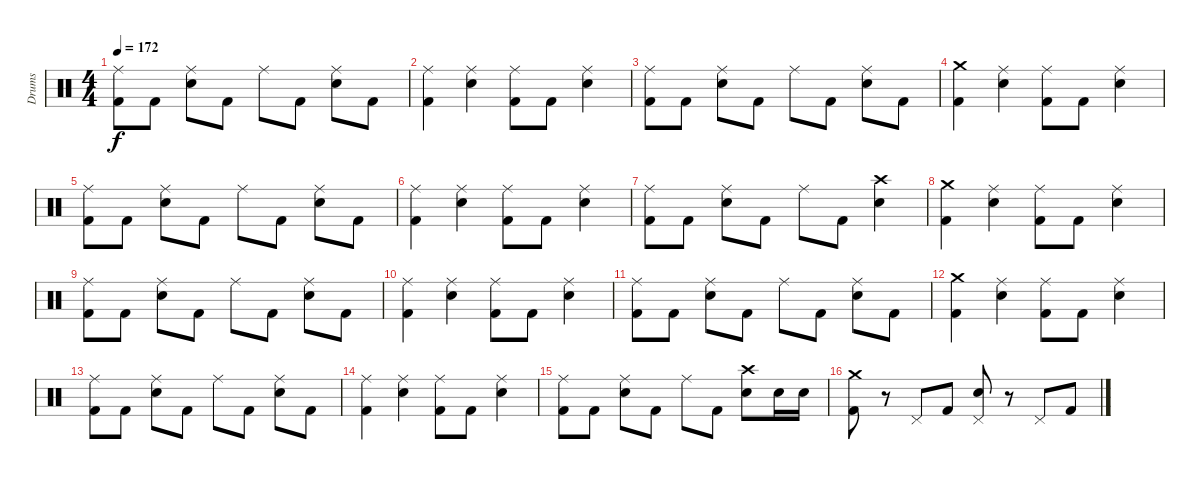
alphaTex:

\track ("Drums" "Drums") {instrument percussion}
\staff {score}
\articulation defaults
\ts (4 4)
\tempo 172
\clef neutral
\ks c
("Ride (middle)" "Kick (hit) 2").8{dy f} "Kick (hit) 2".8 ("Ride (middle)" "Electric Snare (hit)").8 "Kick (hit) 2".8 "Ride (middle)".8 "Kick (hit) 2".8 ("Ride (middle)" "Electric Snare (hit)").8 "Kick (hit) 2".8 |
("Ride (middle)" "Kick (hit) 2").4 ("Ride (middle)" "Electric Snare (hit)").4 ("Ride (middle)" "Kick (hit) 2").8 "Kick (hit) 2".8 ("Ride (middle)" "Electric Snare (hit)").4 |
("Ride (middle)" "Kick (hit) 2").8 "Kick (hit) 2".8 ("Ride (middle)" "Electric Snare (hit)").8 "Kick (hit) 2".8 "Ride (middle)".8 "Kick (hit) 2".8 ("Ride (middle)" "Electric Snare (hit)").8 "Kick (hit) 2".8 |
("Crash medium (hit)" "Kick (hit) 2").4 ("Ride (middle)" "Electric Snare (hit)").4 ("Ride (middle)" "Kick (hit) 2").8 "Kick (hit) 2".8 ("Ride (middle)" "Electric Snare (hit)").4 |
("Ride (middle)" "Kick (hit) 2").8 "Kick (hit) 2".8 ("Ride (middle)" "Electric Snare (hit)").8 "Kick (hit) 2".8 "Ride (middle)".8 "Kick (hit) 2".8 ("Ride (middle)" "Electric Snare (hit)").8 "Kick (hit) 2".8 |
("Ride (middle)" "Kick (hit) 2").4 ("Ride (middle)" "Electric Snare (hit)").4 ("Ride (middle)" "Kick (hit) 2").8 "Kick (hit) 2".8 ("Ride (middle)" "Electric Snare (hit)").4 |
("Ride (middle)" "Kick (hit) 2").8 "Kick (hit) 2".8 ("Ride (middle)" "Electric Snare (hit)").8 "Kick (hit) 2".8 "Ride (middle)".8 "Kick (hit) 2".8 ("Crash high (hit)" "Electric Snare (hit)").4 |
("Crash medium (hit)" "Kick (hit) 2").4 ("Ride (middle)" "Electric Snare (hit)").4 ("Ride (middle)" "Kick (hit) 2").8 "Kick (hit) 2".8 ("Ride (middle)" "Electric Snare (hit)").4 |
("Ride (middle)" "Kick (hit) 2").8 "Kick (hit) 2".8 ("Ride (middle)" "Electric Snare (hit)").8 "Kick (hit) 2".8 "Ride (middle)".8 "Kick (hit) 2".8 ("Ride (middle)" "Electric Snare (hit)").8 "Kick (hit) 2".8 |
("Ride (middle)" "Kick (hit) 2").4 ("Ride (middle)" "Electric Snare (hit)").4 ("Ride (middle)" "Kick (hit) 2").8 "Kick (hit) 2".8 ("Ride (middle)" "Electric Snare (hit)").4 |
("Ride (middle)" "Kick (hit) 2").8 "Kick (hit) 2".8 ("Ride (middle)" "Electric Snare (hit)").8 "Kick (hit) 2".8 "Ride (middle)".8 "Kick (hit) 2".8 ("Ride (middle)" "Electric Snare (hit)").8 "Kick (hit) 2".8 |
("Crash medium (hit)" "Kick (hit) 2").4 ("Ride (middle)" "Electric Snare (hit)").4 ("Ride (middle)" "Kick (hit) 2").8 "Kick (hit) 2".8 ("Ride (middle)" "Electric Snare (hit)").4 |
("Ride (middle)" "Kick (hit) 2").8 "Kick (hit) 2".8 ("Ride (middle)" "Electric Snare (hit)").8 "Kick (hit) 2".8 "Ride (middle)".8 "Kick (hit) 2".8 ("Ride (middle)" "Electric Snare (hit)").8 "Kick (hit) 2".8 |
("Ride (middle)" "Kick (hit) 2").4 ("Ride (middle)" "Electric Snare (hit)").4 ("Ride (middle)" "Kick (hit) 2").8 "Kick (hit) 2".8 ("Ride (middle)" "Electric Snare (hit)").4 |
("Ride (middle)" "Kick (hit) 2").8 "Kick (hit) 2".8 ("Ride (middle)" "Electric Snare (hit)").8 "Kick (hit) 2".8 "Ride (middle)".8 "Kick (hit) 2".8 ("Crash high (hit)" "Electric Snare (hit)").8 "Electric Snare (hit)".16 "Electric Snare (hit)".16 |
\section ("" "")
("Crash medium (hit)" "Kick (hit) 2").8 r.8 "Pedal Hi-Hat (hit)".8 "Kick (hit) 2".8 ("Pedal Hi-Hat (hit)" "Electric Snare (hit)").8 r.8 "Pedal Hi-Hat (hit)".8 "Kick (hit) 2".8
